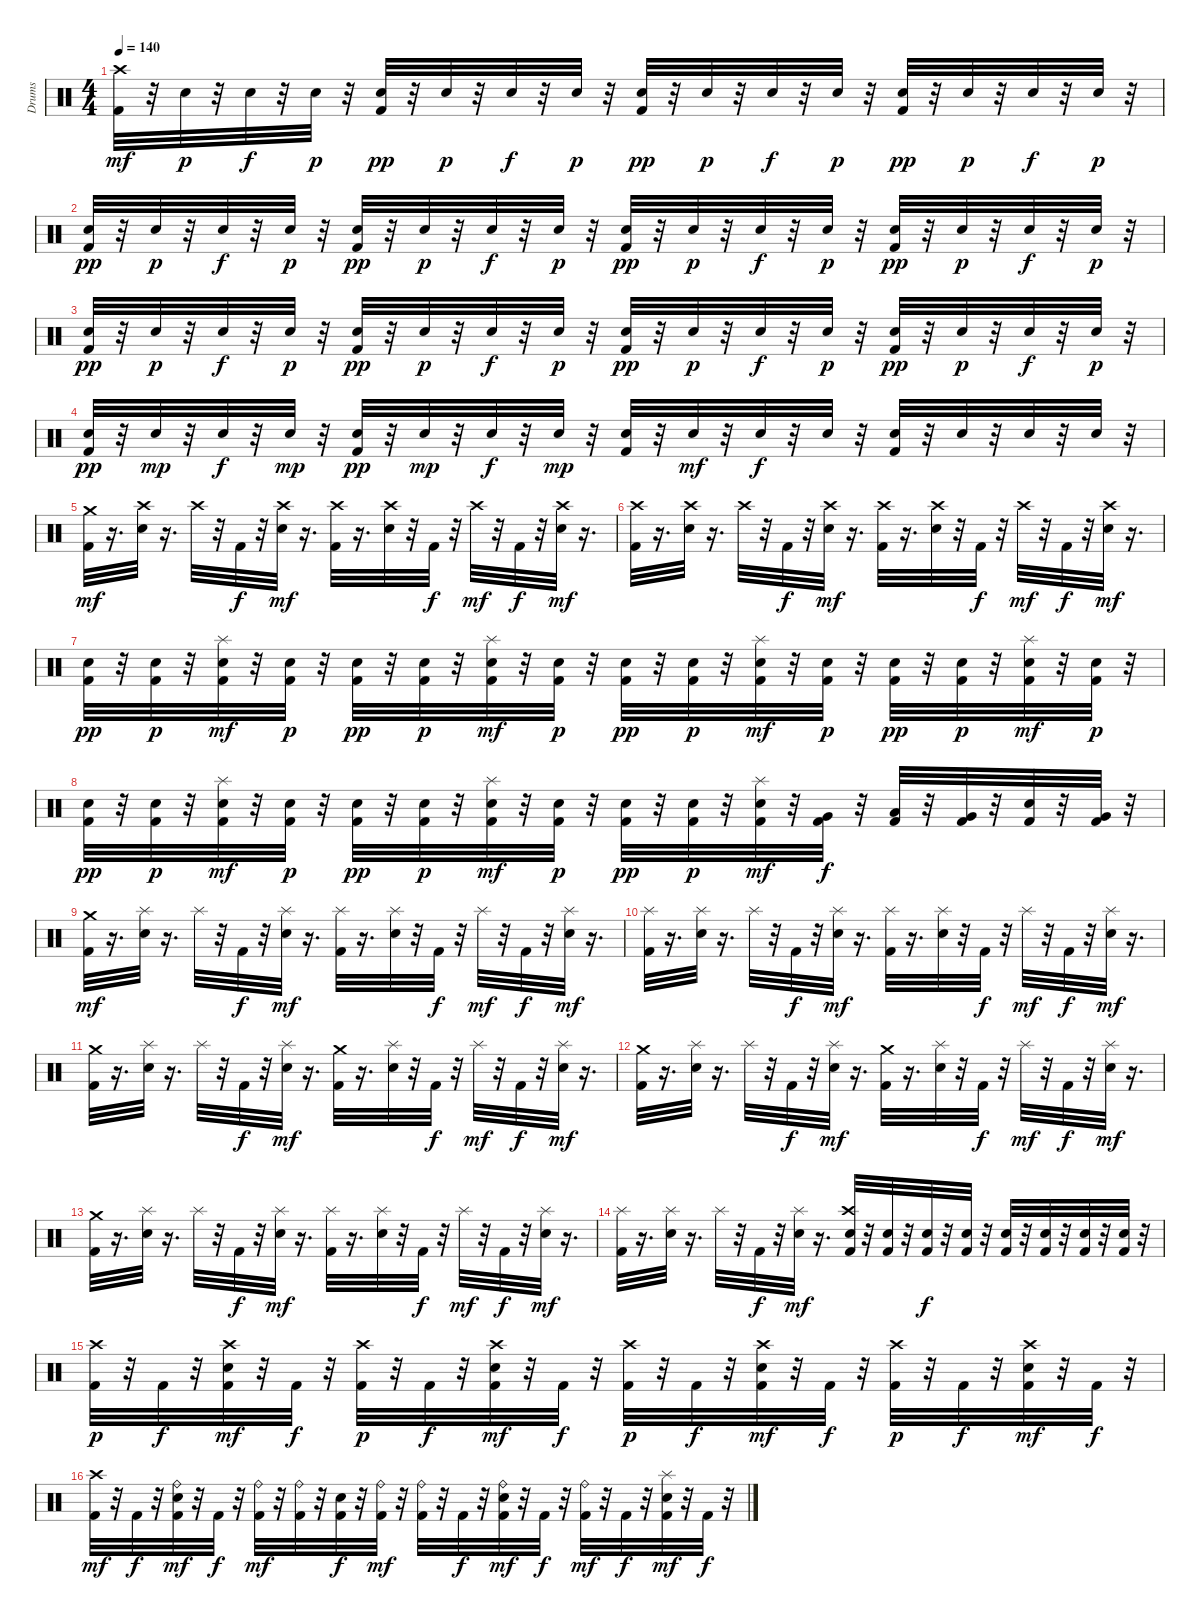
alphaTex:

\track ("Drums" "Drums") {instrument percussion}
\staff {score}
\articulation defaults
\ts (4 4)
\tempo 140
\clef neutral
\ks c
("Kick (hit) 2" "Crash high (hit)").32{dy mf} r.32 "Electric Snare (hit)".32{dy p} r.32 "Electric Snare (hit)".32{dy f} r.32 "Electric Snare (hit)".32{dy p} r.32 ("Kick (hit) 2" "Electric Snare (hit)").32{dy pp} r.32 "Electric Snare (hit)".32{dy p} r.32 "Electric Snare (hit)".32{dy f} r.32 "Electric Snare (hit)".32{dy p} r.32 ("Kick (hit) 2" "Electric Snare (hit)").32{dy pp} r.32 "Electric Snare (hit)".32{dy p} r.32 "Electric Snare (hit)".32{dy f} r.32 "Electric Snare (hit)".32{dy p} r.32 ("Kick (hit) 2" "Electric Snare (hit)").32{dy pp} r.32 "Electric Snare (hit)".32{dy p} r.32 "Electric Snare (hit)".32{dy f} r.32 "Electric Snare (hit)".32{dy p} r.32 |
("Kick (hit) 2" "Electric Snare (hit)").32{dy pp} r.32 "Electric Snare (hit)".32{dy p} r.32 "Electric Snare (hit)".32{dy f} r.32 "Electric Snare (hit)".32{dy p} r.32 ("Kick (hit) 2" "Electric Snare (hit)").32{dy pp} r.32 "Electric Snare (hit)".32{dy p} r.32 "Electric Snare (hit)".32{dy f} r.32 "Electric Snare (hit)".32{dy p} r.32 ("Kick (hit) 2" "Electric Snare (hit)").32{dy pp} r.32 "Electric Snare (hit)".32{dy p} r.32 "Electric Snare (hit)".32{dy f} r.32 "Electric Snare (hit)".32{dy p} r.32 ("Kick (hit) 2" "Electric Snare (hit)").32{dy pp} r.32 "Electric Snare (hit)".32{dy p} r.32 "Electric Snare (hit)".32{dy f} r.32 "Electric Snare (hit)".32{dy p} r.32 |
("Kick (hit) 2" "Electric Snare (hit)").32{dy pp} r.32 "Electric Snare (hit)".32{dy p} r.32 "Electric Snare (hit)".32{dy f} r.32 "Electric Snare (hit)".32{dy p} r.32 ("Kick (hit) 2" "Electric Snare (hit)").32{dy pp} r.32 "Electric Snare (hit)".32{dy p} r.32 "Electric Snare (hit)".32{dy f} r.32 "Electric Snare (hit)".32{dy p} r.32 ("Kick (hit) 2" "Electric Snare (hit)").32{dy pp} r.32 "Electric Snare (hit)".32{dy p} r.32 "Electric Snare (hit)".32{dy f} r.32 "Electric Snare (hit)".32{dy p} r.32 ("Kick (hit) 2" "Electric Snare (hit)").32{dy pp} r.32 "Electric Snare (hit)".32{dy p} r.32 "Electric Snare (hit)".32{dy f} r.32 "Electric Snare (hit)".32{dy p} r.32 |
("Kick (hit) 2" "Electric Snare (hit)").32{dy pp} r.32 "Electric Snare (hit)".32{dy mp} r.32 "Electric Snare (hit)".32{dy f} r.32 "Electric Snare (hit)".32{dy mp} r.32 ("Kick (hit) 2" "Electric Snare (hit)").32{dy pp} r.32 "Electric Snare (hit)".32{dy mp} r.32 "Electric Snare (hit)".32{dy f} r.32 "Electric Snare (hit)".32{dy mp} r.32 ("Kick (hit) 2" "Electric Snare (hit)").32 r.32 "Electric Snare (hit)".32{dy mf} r.32 "Electric Snare (hit)".32{dy f} r.32 "Electric Snare (hit)".32 r.32 ("Kick (hit) 2" "Electric Snare (hit)").32 r.32 "Electric Snare (hit)".32 r.32 "Electric Snare (hit)".32 r.32 "Electric Snare (hit)".32 r.32 |
("Kick (hit) 2" "Crash medium (hit)").32{dy mf} r.16{d} ("Electric Snare (hit)" "Crash high (hit)").32 r.16{d} "Crash high (hit)".32 r.32 "Kick (hit) 2".32{dy f} r.32 ("Electric Snare (hit)" "Crash high (hit)").32{dy mf} r.16{d} ("Kick (hit) 2" "Crash high (hit)").32 r.16{d} ("Electric Snare (hit)" "Crash high (hit)").32 r.32 "Kick (hit) 2".32{dy f} r.32 "Crash high (hit)".32{dy mf} r.32 "Kick (hit) 2".32{dy f} r.32 ("Electric Snare (hit)" "Crash high (hit)").32{dy mf} r.16{d} |
("Kick (hit) 2" "Crash high (hit)").32 r.16{d} ("Electric Snare (hit)" "Crash high (hit)").32 r.16{d} "Crash high (hit)".32 r.32 "Kick (hit) 2".32{dy f} r.32 ("Electric Snare (hit)" "Crash high (hit)").32{dy mf} r.16{d} ("Kick (hit) 2" "Crash high (hit)").32 r.16{d} ("Electric Snare (hit)" "Crash high (hit)").32 r.32 "Kick (hit) 2".32{dy f} r.32 "Crash high (hit)".32{dy mf} r.32 "Kick (hit) 2".32{dy f} r.32 ("Electric Snare (hit)" "Crash high (hit)").32{dy mf} r.16{d} |
("Kick (hit) 2" "Electric Snare (hit)").32{dy pp} r.32 ("Kick (hit) 2" "Electric Snare (hit)").32{dy p} r.32 ("Kick (hit) 2" "Electric Snare (hit)" "Splash (hit)").32{dy mf} r.32 ("Kick (hit) 2" "Electric Snare (hit)").32{dy p} r.32 ("Kick (hit) 2" "Electric Snare (hit)").32{dy pp} r.32 ("Kick (hit) 2" "Electric Snare (hit)").32{dy p} r.32 ("Kick (hit) 2" "Electric Snare (hit)" "Splash (hit)").32{dy mf} r.32 ("Kick (hit) 2" "Electric Snare (hit)").32{dy p} r.32 ("Kick (hit) 2" "Electric Snare (hit)").32{dy pp} r.32 ("Kick (hit) 2" "Electric Snare (hit)").32{dy p} r.32 ("Kick (hit) 2" "Electric Snare (hit)" "Splash (hit)").32{dy mf} r.32 ("Kick (hit) 2" "Electric Snare (hit)").32{dy p} r.32 ("Kick (hit) 2" "Electric Snare (hit)").32{dy pp} r.32 ("Kick (hit) 2" "Electric Snare (hit)").32{dy p} r.32 ("Kick (hit) 2" "Electric Snare (hit)" "Splash (hit)").32{dy mf} r.32 ("Kick (hit) 2" "Electric Snare (hit)").32{dy p} r.32 |
("Kick (hit) 2" "Electric Snare (hit)").32{dy pp} r.32 ("Kick (hit) 2" "Electric Snare (hit)").32{dy p} r.32 ("Kick (hit) 2" "Electric Snare (hit)" "Splash (hit)").32{dy mf} r.32 ("Kick (hit) 2" "Electric Snare (hit)").32{dy p} r.32 ("Kick (hit) 2" "Electric Snare (hit)").32{dy pp} r.32 ("Kick (hit) 2" "Electric Snare (hit)").32{dy p} r.32 ("Kick (hit) 2" "Electric Snare (hit)" "Splash (hit)").32{dy mf} r.32 ("Kick (hit) 2" "Electric Snare (hit)").32{dy p} r.32 ("Kick (hit) 2" "Electric Snare (hit)").32{dy pp} r.32 ("Kick (hit) 2" "Electric Snare (hit)").32{dy p} r.32 ("Kick (hit) 2" "Electric Snare (hit)" "Splash (hit)").32{dy mf} r.32 ("Kick (hit) 2" "Very Low Tom (hit)").32{dy f} r.32 ("Kick (hit) 2" "Low Floor Tom (hit)").32 r.32 ("Kick (hit) 2" "Very Low Tom (hit)").32 r.32 ("Kick (hit) 2" "Electric Snare (hit)").32 r.32 ("Kick (hit) 2" "Very Low Tom (hit)").32 r.32 |
("Kick (hit) 2" "Crash medium (hit)").32{dy mf} r.16{d} ("Electric Snare (hit)" "Splash (hit)").32 r.16{d} "Splash (hit)".32 r.32 "Kick (hit) 2".32{dy f} r.32 ("Electric Snare (hit)" "Splash (hit)").32{dy mf} r.16{d} ("Kick (hit) 2" "Splash (hit)").32 r.16{d} ("Electric Snare (hit)" "Splash (hit)").32 r.32 "Kick (hit) 2".32{dy f} r.32 "Splash (hit)".32{dy mf} r.32 "Kick (hit) 2".32{dy f} r.32 ("Electric Snare (hit)" "Splash (hit)").32{dy mf} r.16{d} |
("Kick (hit) 2" "Splash (hit)").32 r.16{d} ("Electric Snare (hit)" "Splash (hit)").32 r.16{d} "Splash (hit)".32 r.32 "Kick (hit) 2".32{dy f} r.32 ("Electric Snare (hit)" "Splash (hit)").32{dy mf} r.16{d} ("Kick (hit) 2" "Splash (hit)").32 r.16{d} ("Electric Snare (hit)" "Splash (hit)").32 r.32 "Kick (hit) 2".32{dy f} r.32 "Splash (hit)".32{dy mf} r.32 "Kick (hit) 2".32{dy f} r.32 ("Electric Snare (hit)" "Splash (hit)").32{dy mf} r.16{d} |
("Kick (hit) 2" "Crash medium (hit)").32 r.16{d} ("Electric Snare (hit)" "Splash (hit)").32 r.16{d} "Splash (hit)".32 r.32 "Kick (hit) 2".32{dy f} r.32 ("Electric Snare (hit)" "Splash (hit)").32{dy mf} r.16{d} ("Kick (hit) 2" "Crash medium (hit)").32 r.16{d} ("Electric Snare (hit)" "Splash (hit)").32 r.32 "Kick (hit) 2".32{dy f} r.32 "Splash (hit)".32{dy mf} r.32 "Kick (hit) 2".32{dy f} r.32 ("Electric Snare (hit)" "Splash (hit)").32{dy mf} r.16{d} |
("Kick (hit) 2" "Crash medium (hit)").32 r.16{d} ("Electric Snare (hit)" "Splash (hit)").32 r.16{d} "Splash (hit)".32 r.32 "Kick (hit) 2".32{dy f} r.32 ("Electric Snare (hit)" "Splash (hit)").32{dy mf} r.16{d} ("Kick (hit) 2" "Crash medium (hit)").32 r.16{d} ("Electric Snare (hit)" "Splash (hit)").32 r.32 "Kick (hit) 2".32{dy f} r.32 "Splash (hit)".32{dy mf} r.32 "Kick (hit) 2".32{dy f} r.32 ("Electric Snare (hit)" "Splash (hit)").32{dy mf} r.16{d} |
("Kick (hit) 2" "Crash medium (hit)").32 r.16{d} ("Electric Snare (hit)" "Splash (hit)").32 r.16{d} "Splash (hit)".32 r.32 "Kick (hit) 2".32{dy f} r.32 ("Electric Snare (hit)" "Splash (hit)").32{dy mf} r.16{d} ("Kick (hit) 2" "Splash (hit)").32 r.16{d} ("Electric Snare (hit)" "Splash (hit)").32 r.32 "Kick (hit) 2".32{dy f} r.32 "Splash (hit)".32{dy mf} r.32 "Kick (hit) 2".32{dy f} r.32 ("Electric Snare (hit)" "Splash (hit)").32{dy mf} r.16{d} |
("Kick (hit) 2" "Splash (hit)").32 r.16{d} ("Electric Snare (hit)" "Splash (hit)").32 r.16{d} "Splash (hit)".32 r.32 "Kick (hit) 2".32{dy f} r.32 ("Electric Snare (hit)" "Splash (hit)").32{dy mf} r.16{d} ("Kick (hit) 2" "Electric Snare (hit)" "Crash high (hit)").32 r.32 ("Kick (hit) 2" "Electric Snare (hit)").32 r.32 ("Kick (hit) 2" "Electric Snare (hit)").32{dy f} r.32 ("Kick (hit) 2" "Electric Snare (hit)").32 r.32 ("Kick (hit) 2" "Electric Snare (hit)").32 r.32 ("Kick (hit) 2" "Electric Snare (hit)").32 r.32 ("Kick (hit) 2" "Electric Snare (hit)").32 r.32 ("Kick (hit) 2" "Electric Snare (hit)").32 r.32 |
("Kick (hit) 2" "Crash high (hit)").32{dy p} r.32 "Kick (hit) 2".32{dy f} r.32 ("Kick (hit) 2" "Electric Snare (hit)" "Crash high (hit)").32{dy mf} r.32 "Kick (hit) 2".32{dy f} r.32 ("Kick (hit) 2" "Crash high (hit)").32{dy p} r.32 "Kick (hit) 2".32{dy f} r.32 ("Kick (hit) 2" "Electric Snare (hit)" "Crash high (hit)").32{dy mf} r.32 "Kick (hit) 2".32{dy f} r.32 ("Kick (hit) 2" "Crash high (hit)").32{dy p} r.32 "Kick (hit) 2".32{dy f} r.32 ("Kick (hit) 2" "Electric Snare (hit)" "Crash high (hit)").32{dy mf} r.32 "Kick (hit) 2".32{dy f} r.32 ("Kick (hit) 2" "Crash high (hit)").32{dy p} r.32 "Kick (hit) 2".32{dy f} r.32 ("Kick (hit) 2" "Electric Snare (hit)" "Crash high (hit)").32{dy mf} r.32 "Kick (hit) 2".32{dy f} r.32 |
("Kick (hit) 2" "Crash high (hit)").32{dy mf} r.32 "Kick (hit) 2".32{dy f} r.32 ("Kick (hit) 2" "Electric Snare (hit)" "Ride (bell)").32{dy mf} r.32 "Kick (hit) 2".32{dy f} r.32 ("Kick (hit) 2" "Ride (bell)").32{dy mf} r.32 ("Kick (hit) 2" "Ride (bell)").32 r.32 ("Kick (hit) 2" "Electric Snare (hit)").32{dy f} r.32 ("Kick (hit) 2" "Ride (bell)").32{dy mf} r.32 ("Kick (hit) 2" "Ride (bell)").32 r.32 "Kick (hit) 2".32{dy f} r.32 ("Kick (hit) 2" "Electric Snare (hit)" "Ride (bell)").32{dy mf} r.32 "Kick (hit) 2".32{dy f} r.32 ("Kick (hit) 2" "Ride (bell)").32{dy mf} r.32 "Kick (hit) 2".32{dy f} r.32 ("Kick (hit) 2" "Electric Snare (hit)" "Splash (hit)").32{dy mf} r.32 "Kick (hit) 2".32{dy f} r.32
